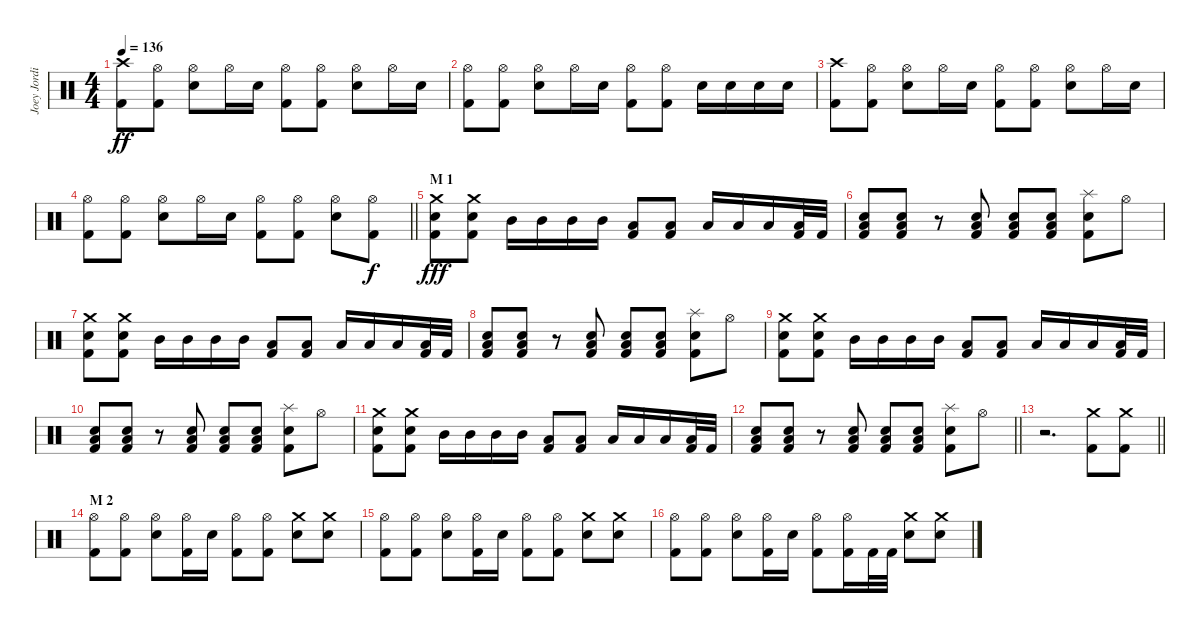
\track ("Joey Jordison" "Joey Jordi") {instrument percussion}
\staff {score}
\articulation defaults
\ts (4 4)
\tempo 136
\clef neutral
\ks c
("Crash high (hit)" "Kick (hit) 2").8{dy ff} ("Hi-Hat (open)" "Kick (hit) 2").8 ("Hi-Hat (open)" "Electric Snare (hit)").8 "Hi-Hat (open)".16 "Electric Snare (hit)".16 ("Hi-Hat (open)" "Kick (hit) 2").8 ("Hi-Hat (open)" "Kick (hit) 2").8 ("Hi-Hat (open)" "Electric Snare (hit)").8 "Hi-Hat (open)".16 "Electric Snare (hit)".16 |
("Hi-Hat (open)" "Kick (hit) 2").8 ("Hi-Hat (open)" "Kick (hit) 2").8 ("Hi-Hat (open)" "Electric Snare (hit)").8 "Hi-Hat (open)".16 "Electric Snare (hit)".16 ("Hi-Hat (open)" "Kick (hit) 2").8 ("Hi-Hat (open)" "Kick (hit) 2").8 "Electric Snare (hit)".16 "Electric Snare (hit)".16 "Electric Snare (hit)".16 "Electric Snare (hit)".16 |
("Crash high (hit)" "Kick (hit) 2").8 ("Hi-Hat (open)" "Kick (hit) 2").8 ("Hi-Hat (open)" "Electric Snare (hit)").8 "Hi-Hat (open)".16 "Electric Snare (hit)".16 ("Hi-Hat (open)" "Kick (hit) 2").8 ("Hi-Hat (open)" "Kick (hit) 2").8 ("Hi-Hat (open)" "Electric Snare (hit)").8 "Hi-Hat (open)".16 "Electric Snare (hit)".16 |
\barLineRight lightlight
("Hi-Hat (open)" "Kick (hit) 2").8 ("Hi-Hat (open)" "Kick (hit) 2").8 ("Hi-Hat (open)" "Electric Snare (hit)").8 "Hi-Hat (open)".16 "Electric Snare (hit)".16 ("Hi-Hat (open)" "Kick (hit) 2").8 ("Hi-Hat (open)" "Kick (hit) 2").8 ("Hi-Hat (open)" "Electric Snare (hit)").8 ("Hi-Hat (open)" "Kick (hit) 2").8{dy f} |
\section ("" "M 1")
("Crash medium (hit)" "Electric Snare (hit)" "Kick (hit) 2").8{dy fff} ("Crash medium (hit)" "Electric Snare (hit)" "Kick (hit) 2").8 "Mid Tom (hit)".16 "Mid Tom (hit)".16 "Mid Tom (hit)".16 "Mid Tom (hit)".16 ("Low Tom (hit)" "Kick (hit) 2").8 ("Low Tom (hit)" "Kick (hit) 2").8 "Low Tom (hit)".16 "Low Tom (hit)".16 "Low Tom (hit)".16 ("Low Tom (hit)" "Kick (hit) 2").32 "Kick (hit) 2".32 |
("Electric Snare (hit)" "Low Floor Tom (hit)" "Kick (hit) 2").8 ("Electric Snare (hit)" "Low Floor Tom (hit)" "Kick (hit) 2").8 r.8 ("Electric Snare (hit)" "Low Floor Tom (hit)" "Kick (hit) 2").8 ("Electric Snare (hit)" "Low Floor Tom (hit)" "Kick (hit) 2").8 ("Electric Snare (hit)" "Low Floor Tom (hit)" "Kick (hit) 2").8 ("Splash (hit)" "Electric Snare (hit)" "Kick (hit) 2").8 "Hi-Hat (open)".8 |
("Crash medium (hit)" "Electric Snare (hit)" "Kick (hit) 2").8 ("Crash medium (hit)" "Electric Snare (hit)" "Kick (hit) 2").8 "Mid Tom (hit)".16 "Mid Tom (hit)".16 "Mid Tom (hit)".16 "Mid Tom (hit)".16 ("Low Tom (hit)" "Kick (hit) 2").8 ("Low Tom (hit)" "Kick (hit) 2").8 "Low Tom (hit)".16 "Low Tom (hit)".16 "Low Tom (hit)".16 ("Low Tom (hit)" "Kick (hit) 2").32 "Kick (hit) 2".32 |
("Electric Snare (hit)" "Low Floor Tom (hit)" "Kick (hit) 2").8 ("Electric Snare (hit)" "Low Floor Tom (hit)" "Kick (hit) 2").8 r.8 ("Electric Snare (hit)" "Low Floor Tom (hit)" "Kick (hit) 2").8 ("Electric Snare (hit)" "Low Floor Tom (hit)" "Kick (hit) 2").8 ("Electric Snare (hit)" "Low Floor Tom (hit)" "Kick (hit) 2").8 ("Splash (hit)" "Electric Snare (hit)" "Kick (hit) 2").8 "Hi-Hat (open)".8 |
("Crash medium (hit)" "Electric Snare (hit)" "Kick (hit) 2").8 ("Crash medium (hit)" "Electric Snare (hit)" "Kick (hit) 2").8 "Mid Tom (hit)".16 "Mid Tom (hit)".16 "Mid Tom (hit)".16 "Mid Tom (hit)".16 ("Low Tom (hit)" "Kick (hit) 2").8 ("Low Tom (hit)" "Kick (hit) 2").8 "Low Tom (hit)".16 "Low Tom (hit)".16 "Low Tom (hit)".16 ("Low Tom (hit)" "Kick (hit) 2").32 "Kick (hit) 2".32 |
("Electric Snare (hit)" "Low Floor Tom (hit)" "Kick (hit) 2").8 ("Electric Snare (hit)" "Low Floor Tom (hit)" "Kick (hit) 2").8 r.8 ("Electric Snare (hit)" "Low Floor Tom (hit)" "Kick (hit) 2").8 ("Electric Snare (hit)" "Low Floor Tom (hit)" "Kick (hit) 2").8 ("Electric Snare (hit)" "Low Floor Tom (hit)" "Kick (hit) 2").8 ("Splash (hit)" "Electric Snare (hit)" "Kick (hit) 2").8 "Hi-Hat (open)".8 |
("Crash medium (hit)" "Electric Snare (hit)" "Kick (hit) 2").8 ("Crash medium (hit)" "Electric Snare (hit)" "Kick (hit) 2").8 "Mid Tom (hit)".16 "Mid Tom (hit)".16 "Mid Tom (hit)".16 "Mid Tom (hit)".16 ("Low Tom (hit)" "Kick (hit) 2").8 ("Low Tom (hit)" "Kick (hit) 2").8 "Low Tom (hit)".16 "Low Tom (hit)".16 "Low Tom (hit)".16 ("Low Tom (hit)" "Kick (hit) 2").32 "Kick (hit) 2".32 |
\barLineRight lightlight
("Electric Snare (hit)" "Low Floor Tom (hit)" "Kick (hit) 2").8 ("Electric Snare (hit)" "Low Floor Tom (hit)" "Kick (hit) 2").8 r.8 ("Electric Snare (hit)" "Low Floor Tom (hit)" "Kick (hit) 2").8 ("Electric Snare (hit)" "Low Floor Tom (hit)" "Kick (hit) 2").8 ("Electric Snare (hit)" "Low Floor Tom (hit)" "Kick (hit) 2").8 ("Splash (hit)" "Electric Snare (hit)" "Kick (hit) 2").8 "Hi-Hat (open)".8 |
\barLineRight lightlight
r.2{d} ("Crash medium (hit)" "Kick (hit) 2").8 ("Crash medium (hit)" "Kick (hit) 2").8 |
\section ("" "M 2")
("Hi-Hat (open)" "Kick (hit) 2").8 ("Hi-Hat (open)" "Kick (hit) 2").8 ("Hi-Hat (open)" "Electric Snare (hit)").8 ("Hi-Hat (open)" "Kick (hit) 2").16 "Electric Snare (hit)".16 ("Hi-Hat (open)" "Kick (hit) 2").8 ("Hi-Hat (open)" "Kick (hit) 2").8 ("Crash medium (hit)" "Electric Snare (hit)").8 ("Crash medium (hit)" "Electric Snare (hit)").8 |
("Hi-Hat (open)" "Kick (hit) 2").8 ("Hi-Hat (open)" "Kick (hit) 2").8 ("Hi-Hat (open)" "Electric Snare (hit)").8 ("Hi-Hat (open)" "Kick (hit) 2").16 "Electric Snare (hit)".16 ("Hi-Hat (open)" "Kick (hit) 2").8 ("Hi-Hat (open)" "Kick (hit) 2").8 ("Crash medium (hit)" "Electric Snare (hit)").8 ("Crash medium (hit)" "Electric Snare (hit)").8 |
("Hi-Hat (open)" "Kick (hit) 2").8 ("Hi-Hat (open)" "Kick (hit) 2").8 ("Hi-Hat (open)" "Electric Snare (hit)").8 ("Hi-Hat (open)" "Kick (hit) 2").16 "Electric Snare (hit)".16 ("Hi-Hat (open)" "Kick (hit) 2").8 ("Hi-Hat (open)" "Kick (hit) 2").16 "Kick (hit) 2".32 "Kick (hit) 2".32 ("Crash medium (hit)" "Electric Snare (hit)").8 ("Crash medium (hit)" "Electric Snare (hit)").8
